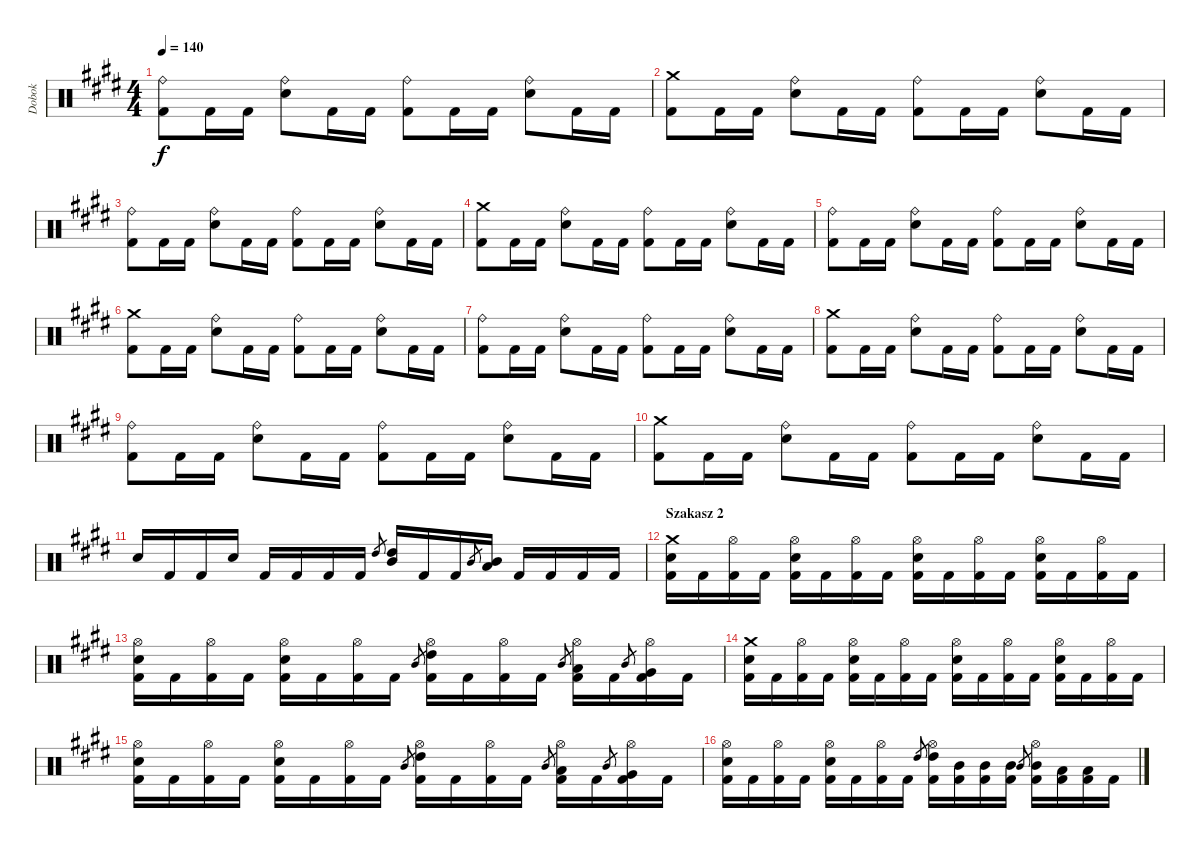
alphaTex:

\track ("Dobok" "Dobok") {instrument percussion}
\staff {score}
\articulation defaults
\ts (4 4)
\tempo 140
\clef neutral
\ks c#minor
("Ride (bell)" "Kick (hit) 2").8{dy f} "Kick (hit) 2".16 "Kick (hit) 2".16 ("Ride (bell)" "Snare (hit) 2").8 "Kick (hit) 2".16 "Kick (hit) 2".16 ("Ride (bell)" "Kick (hit) 2").8 "Kick (hit) 2".16 "Kick (hit) 2".16 ("Ride (bell)" "Snare (hit) 2").8 "Kick (hit) 2".16 "Kick (hit) 2".16 |
("Crash medium (hit)" "Kick (hit) 2").8 "Kick (hit) 2".16 "Kick (hit) 2".16 ("Ride (bell)" "Snare (hit) 2").8 "Kick (hit) 2".16 "Kick (hit) 2".16 ("Ride (bell)" "Kick (hit) 2").8 "Kick (hit) 2".16 "Kick (hit) 2".16 ("Ride (bell)" "Snare (hit) 2").8 "Kick (hit) 2".16 "Kick (hit) 2".16 |
("Ride (bell)" "Kick (hit) 2").8 "Kick (hit) 2".16 "Kick (hit) 2".16 ("Ride (bell)" "Snare (hit) 2").8 "Kick (hit) 2".16 "Kick (hit) 2".16 ("Ride (bell)" "Kick (hit) 2").8 "Kick (hit) 2".16 "Kick (hit) 2".16 ("Ride (bell)" "Snare (hit) 2").8 "Kick (hit) 2".16 "Kick (hit) 2".16 |
("Crash medium (hit)" "Kick (hit) 2").8 "Kick (hit) 2".16 "Kick (hit) 2".16 ("Ride (bell)" "Snare (hit) 2").8 "Kick (hit) 2".16 "Kick (hit) 2".16 ("Ride (bell)" "Kick (hit) 2").8 "Kick (hit) 2".16 "Kick (hit) 2".16 ("Ride (bell)" "Snare (hit) 2").8 "Kick (hit) 2".16 "Kick (hit) 2".16 |
("Ride (bell)" "Kick (hit) 2").8 "Kick (hit) 2".16 "Kick (hit) 2".16 ("Ride (bell)" "Snare (hit) 2").8 "Kick (hit) 2".16 "Kick (hit) 2".16 ("Ride (bell)" "Kick (hit) 2").8 "Kick (hit) 2".16 "Kick (hit) 2".16 ("Ride (bell)" "Snare (hit) 2").8 "Kick (hit) 2".16 "Kick (hit) 2".16 |
("Crash medium (hit)" "Kick (hit) 2").8 "Kick (hit) 2".16 "Kick (hit) 2".16 ("Ride (bell)" "Snare (hit) 2").8 "Kick (hit) 2".16 "Kick (hit) 2".16 ("Ride (bell)" "Kick (hit) 2").8 "Kick (hit) 2".16 "Kick (hit) 2".16 ("Ride (bell)" "Snare (hit) 2").8 "Kick (hit) 2".16 "Kick (hit) 2".16 |
("Ride (bell)" "Kick (hit) 2").8 "Kick (hit) 2".16 "Kick (hit) 2".16 ("Ride (bell)" "Snare (hit) 2").8 "Kick (hit) 2".16 "Kick (hit) 2".16 ("Ride (bell)" "Kick (hit) 2").8 "Kick (hit) 2".16 "Kick (hit) 2".16 ("Ride (bell)" "Snare (hit) 2").8 "Kick (hit) 2".16 "Kick (hit) 2".16 |
("Crash medium (hit)" "Kick (hit) 2").8 "Kick (hit) 2".16 "Kick (hit) 2".16 ("Ride (bell)" "Snare (hit) 2").8 "Kick (hit) 2".16 "Kick (hit) 2".16 ("Ride (bell)" "Kick (hit) 2").8 "Kick (hit) 2".16 "Kick (hit) 2".16 ("Ride (bell)" "Snare (hit) 2").8 "Kick (hit) 2".16 "Kick (hit) 2".16 |
("Ride (bell)" "Kick (hit) 2").8 "Kick (hit) 2".16 "Kick (hit) 2".16 ("Ride (bell)" "Snare (hit) 2").8 "Kick (hit) 2".16 "Kick (hit) 2".16 ("Ride (bell)" "Kick (hit) 2").8 "Kick (hit) 2".16 "Kick (hit) 2".16 ("Ride (bell)" "Snare (hit) 2").8 "Kick (hit) 2".16 "Kick (hit) 2".16 |
("Crash medium (hit)" "Kick (hit) 2").8 "Kick (hit) 2".16 "Kick (hit) 2".16 ("Ride (bell)" "Snare (hit) 2").8 "Kick (hit) 2".16 "Kick (hit) 2".16 ("Ride (bell)" "Kick (hit) 2").8 "Kick (hit) 2".16 "Kick (hit) 2".16 ("Ride (bell)" "Snare (hit) 2").8 "Kick (hit) 2".16 "Kick (hit) 2".16 |
"Snare (hit) 2".16 "Kick (hit) 2".16 "Kick (hit) 2".16 "Snare (hit) 2".16 "Kick (hit) 2".16 "Kick (hit) 2".16 "Kick (hit) 2".16 "Kick (hit) 2".16 "High Tom (hit)".8{gr} ("High Tom (hit)" "Mid Tom (hit)").16 "Kick (hit) 2".16 "Kick (hit) 2".16 "Mid Tom (hit)".8{gr} ("Mid Tom (hit)" "Low Tom (hit)").16 "Kick (hit) 2".16 "Kick (hit) 2".16 "Kick (hit) 2".16 "Kick (hit) 2".16 |
\section ("" "Szakasz 2")
("Crash medium (hit)" "Snare (hit) 2" "Kick (hit) 2").16 "Kick (hit) 2".16 ("Hi-Hat (open)" "Kick (hit) 2").16 "Kick (hit) 2".16 ("Hi-Hat (open)" "Snare (hit) 2" "Kick (hit) 2").16 "Kick (hit) 2".16 ("Hi-Hat (open)" "Kick (hit) 2").16 "Kick (hit) 2".16 ("Hi-Hat (open)" "Snare (hit) 2" "Kick (hit) 2").16 "Kick (hit) 2".16 ("Hi-Hat (open)" "Kick (hit) 2").16 "Kick (hit) 2".16 ("Hi-Hat (open)" "Snare (hit) 2" "Kick (hit) 2").16 "Kick (hit) 2".16 ("Hi-Hat (open)" "Kick (hit) 2").16 "Kick (hit) 2".16 |
("Hi-Hat (open)" "Snare (hit) 2" "Kick (hit) 2").16 "Kick (hit) 2".16 ("Hi-Hat (open)" "Kick (hit) 2").16 "Kick (hit) 2".16 ("Hi-Hat (open)" "Snare (hit) 2" "Kick (hit) 2").16 "Kick (hit) 2".16 ("Hi-Hat (open)" "Kick (hit) 2").16 "Kick (hit) 2".16 "Mid Tom (hit)".8{gr} ("Hi-Hat (open)" "High Tom (hit)" "Kick (hit) 2").16 "Kick (hit) 2".16 ("Hi-Hat (open)" "Kick (hit) 2").16 "Kick (hit) 2".16 "Mid Tom (hit)".8{gr} ("Hi-Hat (open)" "Low Tom (hit)" "Kick (hit) 2").16 "Kick (hit) 2".16 "Mid Tom (hit)".8{gr} ("Hi-Hat (open)" "Very Low Tom (hit)" "Kick (hit) 2").16 "Kick (hit) 2".16 |
("Crash medium (hit)" "Snare (hit) 2" "Kick (hit) 2").16 "Kick (hit) 2".16 ("Hi-Hat (open)" "Kick (hit) 2").16 "Kick (hit) 2".16 ("Hi-Hat (open)" "Snare (hit) 2" "Kick (hit) 2").16 "Kick (hit) 2".16 ("Hi-Hat (open)" "Kick (hit) 2").16 "Kick (hit) 2".16 ("Hi-Hat (open)" "Snare (hit) 2" "Kick (hit) 2").16 "Kick (hit) 2".16 ("Hi-Hat (open)" "Kick (hit) 2").16 "Kick (hit) 2".16 ("Hi-Hat (open)" "Snare (hit) 2" "Kick (hit) 2").16 "Kick (hit) 2".16 ("Hi-Hat (open)" "Kick (hit) 2").16 "Kick (hit) 2".16 |
("Hi-Hat (open)" "Snare (hit) 2" "Kick (hit) 2").16 "Kick (hit) 2".16 ("Hi-Hat (open)" "Kick (hit) 2").16 "Kick (hit) 2".16 ("Hi-Hat (open)" "Snare (hit) 2" "Kick (hit) 2").16 "Kick (hit) 2".16 ("Hi-Hat (open)" "Kick (hit) 2").16 "Kick (hit) 2".16 "Mid Tom (hit)".8{gr} ("Hi-Hat (open)" "High Tom (hit)" "Kick (hit) 2").16 "Kick (hit) 2".16 ("Hi-Hat (open)" "Kick (hit) 2").16 "Kick (hit) 2".16 "Mid Tom (hit)".8{gr} ("Hi-Hat (open)" "Low Tom (hit)" "Kick (hit) 2").16 "Kick (hit) 2".16 "Mid Tom (hit)".8{gr} ("Hi-Hat (open)" "Very Low Tom (hit)" "Kick (hit) 2").16 "Kick (hit) 2".16 |
("Hi-Hat (open)" "Snare (hit) 2" "Kick (hit) 2").16 "Kick (hit) 2".16 ("Hi-Hat (open)" "Kick (hit) 2").16 "Kick (hit) 2".16 ("Hi-Hat (open)" "Snare (hit) 2" "Kick (hit) 2").16 "Kick (hit) 2".16 ("Hi-Hat (open)" "Kick (hit) 2").16 "Kick (hit) 2".16 "High Tom (hit)".8{gr} ("Hi-Hat (open)" "High Tom (hit)" "Kick (hit) 2").16 ("Mid Tom (hit)" "Kick (hit) 2").16 ("Mid Tom (hit)" "Kick (hit) 2").16 ("Mid Tom (hit)" "Kick (hit) 2").16 "Mid Tom (hit)".8{gr} ("Hi-Hat (open)" "Mid Tom (hit)" "Kick (hit) 2").16 ("Low Tom (hit)" "Kick (hit) 2").16 ("Low Tom (hit)" "Kick (hit) 2").16 "Kick (hit) 2".16
